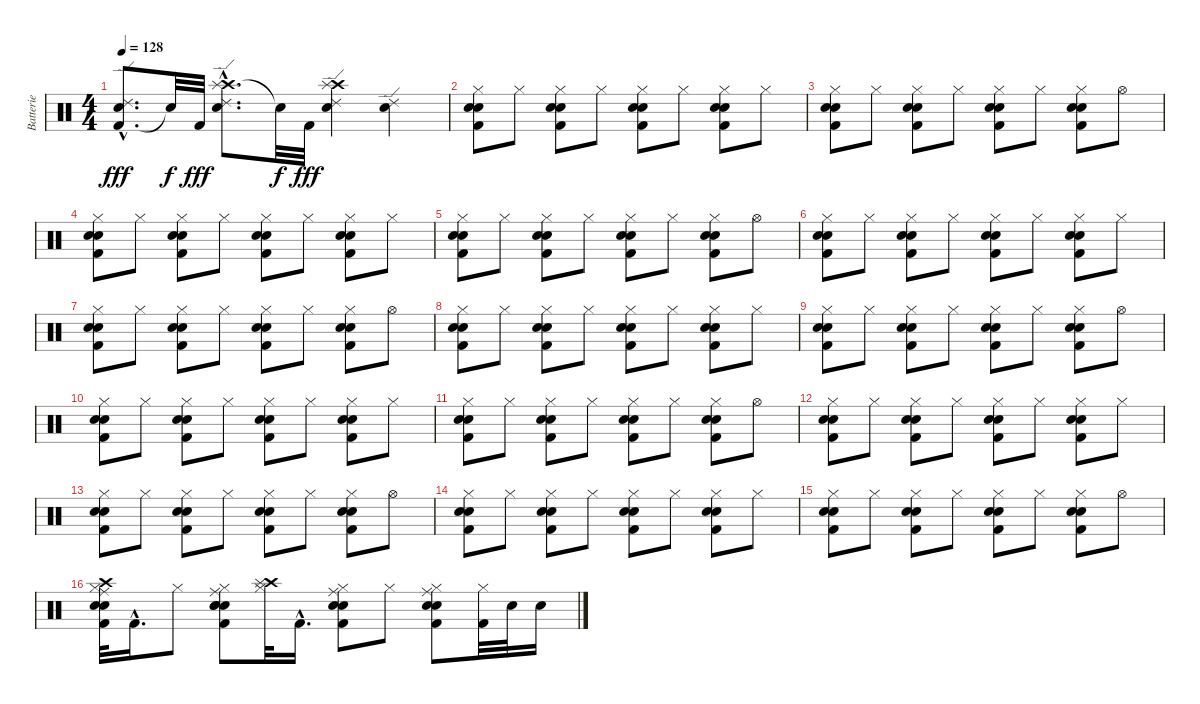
\track ("Batterie" "Batterie") {instrument percussion}
\staff {score}
\articulation defaults
\ts (4 4)
\tempo 128
\clef neutral
\ks c
("Kick (hit) 2" "Ride (edge) 2"{hac} "Electric Snare (hit)").8{d dy fff} "Snare (hit)"{t}.32{dy f} "Kick (hit) 2".32{dy fff} ("Crash high (hit)" "Splash (hit)" "Ride (edge) 2"{hac} "Electric Snare (hit)").8{d} "Snare (hit)"{t}.32{dy f} "Kick (hit) 2".32{dy fff} ("Crash high (hit)" "Splash (hit)" "Ride (edge) 2" "Electric Snare (hit)").4 ("Ride (edge) 2" "Electric Snare (hit)").4 |
("Snare (hit) 2" "Kick (hit) 2" "Hi-Hat (closed)" "Electric Snare (hit)").8 "Hi-Hat (closed)".8 ("Kick (hit) 2" "Snare (hit) 2" "Hi-Hat (closed)" "Electric Snare (hit)").8 "Hi-Hat (closed)".8 ("Snare (hit) 2" "Kick (hit) 2" "Hi-Hat (closed)" "Electric Snare (hit)").8 "Hi-Hat (closed)".8 ("Snare (hit) 2" "Kick (hit) 2" "Hi-Hat (closed)" "Electric Snare (hit)").8 "Hi-Hat (closed)".8 |
("Snare (hit) 2" "Kick (hit) 2" "Hi-Hat (closed)" "Electric Snare (hit)").8 "Hi-Hat (closed)".8 ("Snare (hit) 2" "Kick (hit) 2" "Hi-Hat (closed)" "Electric Snare (hit)").8 "Hi-Hat (closed)".8 ("Kick (hit) 2" "Snare (hit) 2" "Hi-Hat (closed)" "Electric Snare (hit)").8 "Hi-Hat (closed)".8 ("Kick (hit) 2" "Snare (hit) 2" "Hi-Hat (closed)" "Electric Snare (hit)").8 "Hi-Hat (open)".8 |
("Snare (hit) 2" "Kick (hit) 2" "Hi-Hat (closed)" "Electric Snare (hit)").8 "Hi-Hat (closed)".8 ("Kick (hit) 2" "Snare (hit) 2" "Hi-Hat (closed)" "Electric Snare (hit)").8 "Hi-Hat (closed)".8 ("Snare (hit) 2" "Kick (hit) 2" "Hi-Hat (closed)" "Electric Snare (hit)").8 "Hi-Hat (closed)".8 ("Snare (hit) 2" "Kick (hit) 2" "Hi-Hat (closed)" "Electric Snare (hit)").8 "Hi-Hat (closed)".8 |
("Snare (hit) 2" "Kick (hit) 2" "Hi-Hat (closed)" "Electric Snare (hit)").8 "Hi-Hat (closed)".8 ("Snare (hit) 2" "Kick (hit) 2" "Hi-Hat (closed)" "Electric Snare (hit)").8 "Hi-Hat (closed)".8 ("Kick (hit) 2" "Snare (hit) 2" "Hi-Hat (closed)" "Electric Snare (hit)").8 "Hi-Hat (closed)".8 ("Kick (hit) 2" "Snare (hit) 2" "Hi-Hat (closed)" "Electric Snare (hit)").8 "Hi-Hat (open)".8 |
("Snare (hit) 2" "Kick (hit) 2" "Hi-Hat (closed)" "Electric Snare (hit)").8 "Hi-Hat (closed)".8 ("Kick (hit) 2" "Snare (hit) 2" "Hi-Hat (closed)" "Electric Snare (hit)").8 "Hi-Hat (closed)".8 ("Snare (hit) 2" "Kick (hit) 2" "Hi-Hat (closed)" "Electric Snare (hit)").8 "Hi-Hat (closed)".8 ("Snare (hit) 2" "Kick (hit) 2" "Hi-Hat (closed)" "Electric Snare (hit)").8 "Hi-Hat (closed)".8 |
("Snare (hit) 2" "Kick (hit) 2" "Hi-Hat (closed)" "Electric Snare (hit)").8 "Hi-Hat (closed)".8 ("Snare (hit) 2" "Kick (hit) 2" "Hi-Hat (closed)" "Electric Snare (hit)").8 "Hi-Hat (closed)".8 ("Kick (hit) 2" "Snare (hit) 2" "Hi-Hat (closed)" "Electric Snare (hit)").8 "Hi-Hat (closed)".8 ("Kick (hit) 2" "Snare (hit) 2" "Hi-Hat (closed)" "Electric Snare (hit)").8 "Hi-Hat (open)".8 |
("Snare (hit) 2" "Kick (hit) 2" "Hi-Hat (closed)" "Electric Snare (hit)").8 "Hi-Hat (closed)".8 ("Kick (hit) 2" "Snare (hit) 2" "Hi-Hat (closed)" "Electric Snare (hit)").8 "Hi-Hat (closed)".8 ("Snare (hit) 2" "Kick (hit) 2" "Hi-Hat (closed)" "Electric Snare (hit)").8 "Hi-Hat (closed)".8 ("Snare (hit) 2" "Kick (hit) 2" "Hi-Hat (closed)" "Electric Snare (hit)").8 "Hi-Hat (closed)".8 |
("Snare (hit) 2" "Kick (hit) 2" "Hi-Hat (closed)" "Electric Snare (hit)").8 "Hi-Hat (closed)".8 ("Snare (hit) 2" "Kick (hit) 2" "Hi-Hat (closed)" "Electric Snare (hit)").8 "Hi-Hat (closed)".8 ("Kick (hit) 2" "Snare (hit) 2" "Hi-Hat (closed)" "Electric Snare (hit)").8 "Hi-Hat (closed)".8 ("Kick (hit) 2" "Snare (hit) 2" "Hi-Hat (closed)" "Electric Snare (hit)").8 "Hi-Hat (open)".8 |
("Snare (hit) 2" "Kick (hit) 2" "Hi-Hat (closed)" "Electric Snare (hit)").8 "Hi-Hat (closed)".8 ("Kick (hit) 2" "Snare (hit) 2" "Hi-Hat (closed)" "Electric Snare (hit)").8 "Hi-Hat (closed)".8 ("Snare (hit) 2" "Kick (hit) 2" "Hi-Hat (closed)" "Electric Snare (hit)").8 "Hi-Hat (closed)".8 ("Snare (hit) 2" "Kick (hit) 2" "Hi-Hat (closed)" "Electric Snare (hit)").8 "Hi-Hat (closed)".8 |
("Snare (hit) 2" "Kick (hit) 2" "Hi-Hat (closed)" "Electric Snare (hit)").8 "Hi-Hat (closed)".8 ("Snare (hit) 2" "Kick (hit) 2" "Hi-Hat (closed)" "Electric Snare (hit)").8 "Hi-Hat (closed)".8 ("Kick (hit) 2" "Snare (hit) 2" "Hi-Hat (closed)" "Electric Snare (hit)").8 "Hi-Hat (closed)".8 ("Kick (hit) 2" "Snare (hit) 2" "Hi-Hat (closed)" "Electric Snare (hit)").8 "Hi-Hat (open)".8 |
("Snare (hit) 2" "Kick (hit) 2" "Hi-Hat (closed)" "Electric Snare (hit)").8 "Hi-Hat (closed)".8 ("Kick (hit) 2" "Snare (hit) 2" "Hi-Hat (closed)" "Electric Snare (hit)").8 "Hi-Hat (closed)".8 ("Snare (hit) 2" "Kick (hit) 2" "Hi-Hat (closed)" "Electric Snare (hit)").8 "Hi-Hat (closed)".8 ("Snare (hit) 2" "Kick (hit) 2" "Hi-Hat (closed)" "Electric Snare (hit)").8 "Hi-Hat (closed)".8 |
("Snare (hit) 2" "Kick (hit) 2" "Hi-Hat (closed)" "Electric Snare (hit)").8 "Hi-Hat (closed)".8 ("Snare (hit) 2" "Kick (hit) 2" "Hi-Hat (closed)" "Electric Snare (hit)").8 "Hi-Hat (closed)".8 ("Kick (hit) 2" "Snare (hit) 2" "Hi-Hat (closed)" "Electric Snare (hit)").8 "Hi-Hat (closed)".8 ("Kick (hit) 2" "Snare (hit) 2" "Hi-Hat (closed)" "Electric Snare (hit)").8 "Hi-Hat (open)".8 |
("Snare (hit) 2" "Kick (hit) 2" "Hi-Hat (closed)" "Electric Snare (hit)").8 "Hi-Hat (closed)".8 ("Kick (hit) 2" "Snare (hit) 2" "Hi-Hat (closed)" "Electric Snare (hit)").8 "Hi-Hat (closed)".8 ("Snare (hit) 2" "Kick (hit) 2" "Hi-Hat (closed)" "Electric Snare (hit)").8 "Hi-Hat (closed)".8 ("Snare (hit) 2" "Kick (hit) 2" "Hi-Hat (closed)" "Electric Snare (hit)").8 "Hi-Hat (closed)".8 |
("Snare (hit) 2" "Kick (hit) 2" "Hi-Hat (closed)" "Electric Snare (hit)").8 "Hi-Hat (closed)".8 ("Snare (hit) 2" "Kick (hit) 2" "Hi-Hat (closed)" "Electric Snare (hit)").8 "Hi-Hat (closed)".8 ("Kick (hit) 2" "Snare (hit) 2" "Hi-Hat (closed)" "Electric Snare (hit)").8 "Hi-Hat (closed)".8 ("Kick (hit) 2" "Snare (hit) 2" "Hi-Hat (closed)" "Electric Snare (hit)").8 "Hi-Hat (open)".8 |
("Ride (middle)" "Snare (hit) 2" "Kick (hit) 2" "Hi-Hat (closed)" "Electric Snare (hit)" "Crash high (hit)").32 "Kick (hit) 2"{hac}.16{d} "Hi-Hat (closed)".8 ("Ride (middle)" "Kick (hit) 2" "Snare (hit) 2" "Hi-Hat (closed)" "Electric Snare (hit)" "Snare (hit) 2").8 ("Hi-Hat (closed)" "Crash high (hit)" "Splash (hit)").32 "Kick (hit) 2"{hac}.16{d} ("Ride (middle)" "Snare (hit) 2" "Kick (hit) 2" "Hi-Hat (closed)" "Electric Snare (hit)").8 "Hi-Hat (closed)".8 ("Ride (middle)" "Snare (hit) 2" "Kick (hit) 2" "Hi-Hat (closed)" "Electric Snare (hit)").8 ("Kick (hit) 2" "Hi-Hat (closed)").32 "Snare (hit) 2".32 "Snare (hit) 2".16
